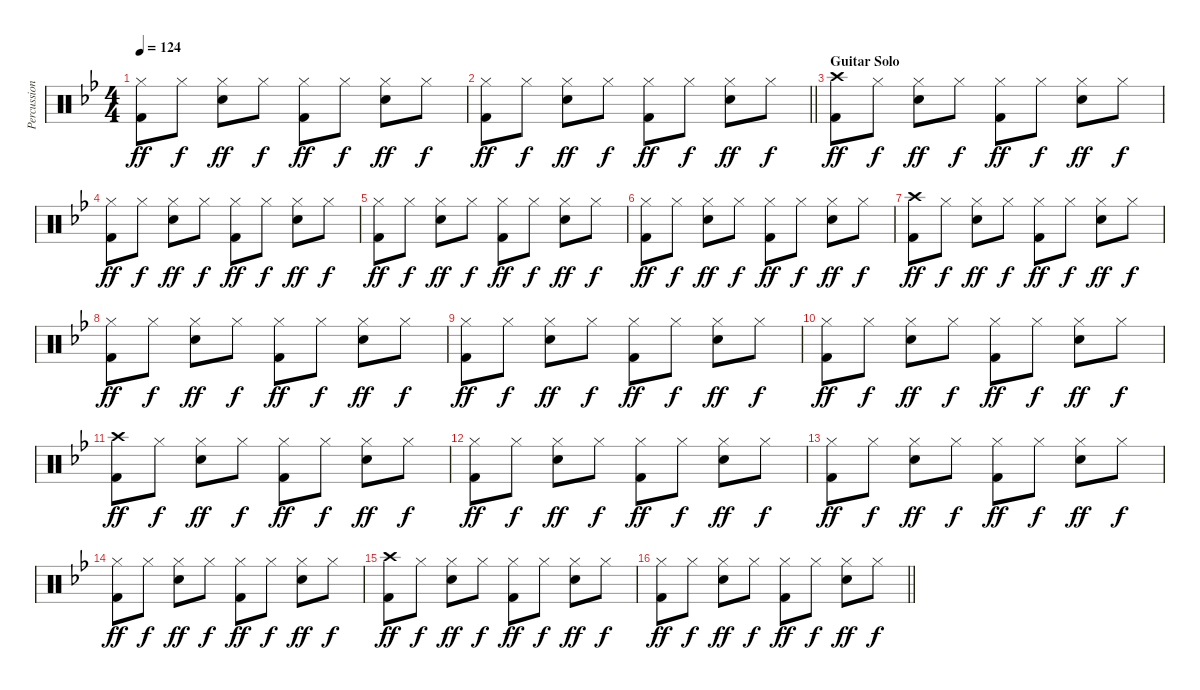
\track ("Percussion" "Percussion") {instrument percussion}
\staff {score}
\articulation defaults
\ts (4 4)
\tempo 124
\clef neutral
\ks gminor
("Hi-Hat (closed)" "Kick (hit) 2").8{dy ff} "Hi-Hat (closed)".8{dy f} ("Hi-Hat (closed)" "Electric Snare (hit)").8{dy ff} "Hi-Hat (closed)".8{dy f} ("Hi-Hat (closed)" "Kick (hit) 2").8{dy ff} "Hi-Hat (closed)".8{dy f} ("Hi-Hat (closed)" "Electric Snare (hit)").8{dy ff} "Hi-Hat (closed)".8{dy f} |
\barLineRight lightlight
("Hi-Hat (closed)" "Kick (hit) 2").8{dy ff} "Hi-Hat (closed)".8{dy f} ("Hi-Hat (closed)" "Electric Snare (hit)").8{dy ff} "Hi-Hat (closed)".8{dy f} ("Hi-Hat (closed)" "Kick (hit) 2").8{dy ff} "Hi-Hat (closed)".8{dy f} ("Hi-Hat (closed)" "Electric Snare (hit)").8{dy ff} "Hi-Hat (closed)".8{dy f} |
\section ("" "Guitar Solo")
("Crash high (hit)" "Kick (hit) 2").8{dy ff} "Hi-Hat (closed)".8{dy f} ("Hi-Hat (closed)" "Electric Snare (hit)").8{dy ff} "Hi-Hat (closed)".8{dy f} ("Hi-Hat (closed)" "Kick (hit) 2").8{dy ff} "Hi-Hat (closed)".8{dy f} ("Hi-Hat (closed)" "Electric Snare (hit)").8{dy ff} "Hi-Hat (closed)".8{dy f} |
("Hi-Hat (closed)" "Kick (hit) 2").8{dy ff} "Hi-Hat (closed)".8{dy f} ("Hi-Hat (closed)" "Electric Snare (hit)").8{dy ff} "Hi-Hat (closed)".8{dy f} ("Hi-Hat (closed)" "Kick (hit) 2").8{dy ff} "Hi-Hat (closed)".8{dy f} ("Hi-Hat (closed)" "Electric Snare (hit)").8{dy ff} "Hi-Hat (closed)".8{dy f} |
("Hi-Hat (closed)" "Kick (hit) 2").8{dy ff} "Hi-Hat (closed)".8{dy f} ("Hi-Hat (closed)" "Electric Snare (hit)").8{dy ff} "Hi-Hat (closed)".8{dy f} ("Hi-Hat (closed)" "Kick (hit) 2").8{dy ff} "Hi-Hat (closed)".8{dy f} ("Hi-Hat (closed)" "Electric Snare (hit)").8{dy ff} "Hi-Hat (closed)".8{dy f} |
("Hi-Hat (closed)" "Kick (hit) 2").8{dy ff} "Hi-Hat (closed)".8{dy f} ("Hi-Hat (closed)" "Electric Snare (hit)").8{dy ff} "Hi-Hat (closed)".8{dy f} ("Hi-Hat (closed)" "Kick (hit) 2").8{dy ff} "Hi-Hat (closed)".8{dy f} ("Hi-Hat (closed)" "Electric Snare (hit)").8{dy ff} "Hi-Hat (closed)".8{dy f} |
("Crash high (hit)" "Kick (hit) 2").8{dy ff} "Hi-Hat (closed)".8{dy f} ("Hi-Hat (closed)" "Electric Snare (hit)").8{dy ff} "Hi-Hat (closed)".8{dy f} ("Hi-Hat (closed)" "Kick (hit) 2").8{dy ff} "Hi-Hat (closed)".8{dy f} ("Hi-Hat (closed)" "Electric Snare (hit)").8{dy ff} "Hi-Hat (closed)".8{dy f} |
("Hi-Hat (closed)" "Kick (hit) 2").8{dy ff} "Hi-Hat (closed)".8{dy f} ("Hi-Hat (closed)" "Electric Snare (hit)").8{dy ff} "Hi-Hat (closed)".8{dy f} ("Hi-Hat (closed)" "Kick (hit) 2").8{dy ff} "Hi-Hat (closed)".8{dy f} ("Hi-Hat (closed)" "Electric Snare (hit)").8{dy ff} "Hi-Hat (closed)".8{dy f} |
("Hi-Hat (closed)" "Kick (hit) 2").8{dy ff} "Hi-Hat (closed)".8{dy f} ("Hi-Hat (closed)" "Electric Snare (hit)").8{dy ff} "Hi-Hat (closed)".8{dy f} ("Hi-Hat (closed)" "Kick (hit) 2").8{dy ff} "Hi-Hat (closed)".8{dy f} ("Hi-Hat (closed)" "Electric Snare (hit)").8{dy ff} "Hi-Hat (closed)".8{dy f} |
("Hi-Hat (closed)" "Kick (hit) 2").8{dy ff} "Hi-Hat (closed)".8{dy f} ("Hi-Hat (closed)" "Electric Snare (hit)").8{dy ff} "Hi-Hat (closed)".8{dy f} ("Hi-Hat (closed)" "Kick (hit) 2").8{dy ff} "Hi-Hat (closed)".8{dy f} ("Hi-Hat (closed)" "Electric Snare (hit)").8{dy ff} "Hi-Hat (closed)".8{dy f} |
("Crash high (hit)" "Kick (hit) 2").8{dy ff} "Hi-Hat (closed)".8{dy f} ("Hi-Hat (closed)" "Electric Snare (hit)").8{dy ff} "Hi-Hat (closed)".8{dy f} ("Hi-Hat (closed)" "Kick (hit) 2").8{dy ff} "Hi-Hat (closed)".8{dy f} ("Hi-Hat (closed)" "Electric Snare (hit)").8{dy ff} "Hi-Hat (closed)".8{dy f} |
("Hi-Hat (closed)" "Kick (hit) 2").8{dy ff} "Hi-Hat (closed)".8{dy f} ("Hi-Hat (closed)" "Electric Snare (hit)").8{dy ff} "Hi-Hat (closed)".8{dy f} ("Hi-Hat (closed)" "Kick (hit) 2").8{dy ff} "Hi-Hat (closed)".8{dy f} ("Hi-Hat (closed)" "Electric Snare (hit)").8{dy ff} "Hi-Hat (closed)".8{dy f} |
("Hi-Hat (closed)" "Kick (hit) 2").8{dy ff} "Hi-Hat (closed)".8{dy f} ("Hi-Hat (closed)" "Electric Snare (hit)").8{dy ff} "Hi-Hat (closed)".8{dy f} ("Hi-Hat (closed)" "Kick (hit) 2").8{dy ff} "Hi-Hat (closed)".8{dy f} ("Hi-Hat (closed)" "Electric Snare (hit)").8{dy ff} "Hi-Hat (closed)".8{dy f} |
("Hi-Hat (closed)" "Kick (hit) 2").8{dy ff} "Hi-Hat (closed)".8{dy f} ("Hi-Hat (closed)" "Electric Snare (hit)").8{dy ff} "Hi-Hat (closed)".8{dy f} ("Hi-Hat (closed)" "Kick (hit) 2").8{dy ff} "Hi-Hat (closed)".8{dy f} ("Hi-Hat (closed)" "Electric Snare (hit)").8{dy ff} "Hi-Hat (closed)".8{dy f} |
("Crash high (hit)" "Kick (hit) 2").8{dy ff} "Hi-Hat (closed)".8{dy f} ("Hi-Hat (closed)" "Electric Snare (hit)").8{dy ff} "Hi-Hat (closed)".8{dy f} ("Hi-Hat (closed)" "Kick (hit) 2").8{dy ff} "Hi-Hat (closed)".8{dy f} ("Hi-Hat (closed)" "Electric Snare (hit)").8{dy ff} "Hi-Hat (closed)".8{dy f} |
\barLineRight lightlight
("Hi-Hat (closed)" "Kick (hit) 2").8{dy ff} "Hi-Hat (closed)".8{dy f} ("Hi-Hat (closed)" "Electric Snare (hit)").8{dy ff} "Hi-Hat (closed)".8{dy f} ("Hi-Hat (closed)" "Kick (hit) 2").8{dy ff} "Hi-Hat (closed)".8{dy f} ("Hi-Hat (closed)" "Electric Snare (hit)").8{dy ff} "Hi-Hat (closed)".8{dy f}
